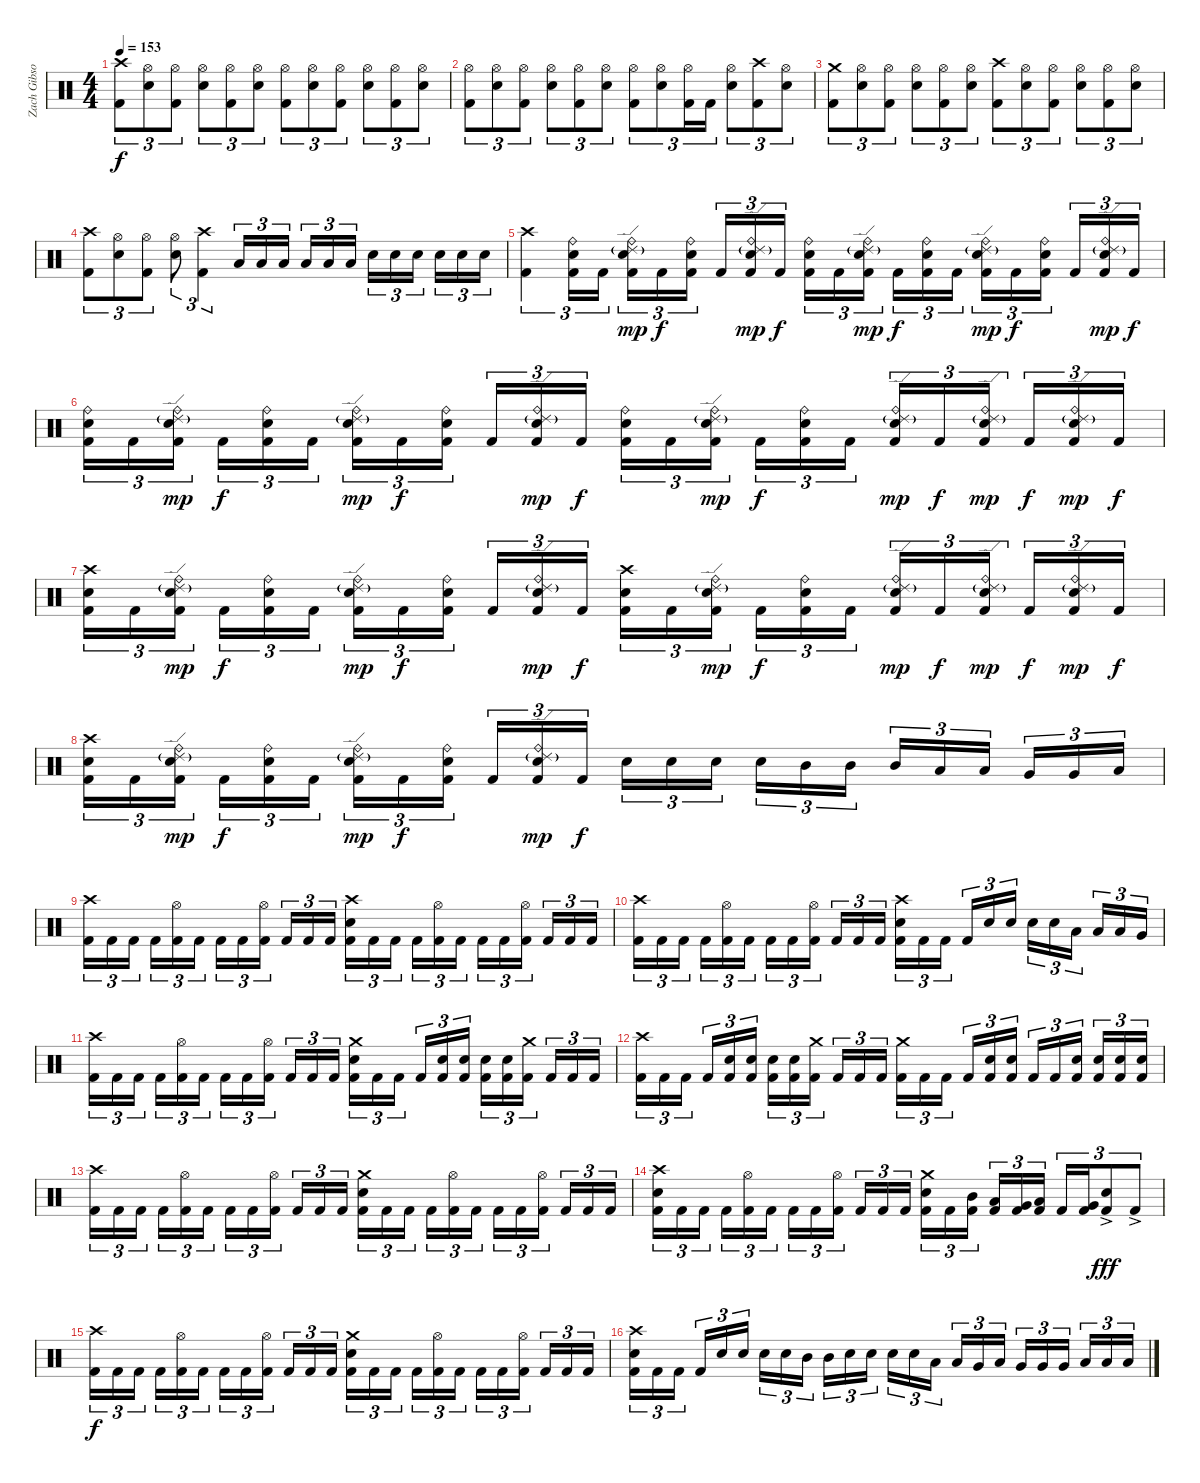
\track ("Zach Gibson (Drums)" "Zach Gibso") {instrument percussion}
\staff {score}
\articulation defaults
\ts (4 4)
\tempo 153
\clef neutral
\ks c
("Crash high (hit)" "Kick (hit) 2").8{tu (3 2) dy f} ("Hi-Hat (open)" "Snare (hit) 2").8{tu (3 2)} ("Hi-Hat (open)" "Kick (hit) 2").8{tu (3 2)} ("Hi-Hat (open)" "Snare (hit) 2").8{tu (3 2)} ("Hi-Hat (open)" "Kick (hit) 2").8{tu (3 2)} ("Hi-Hat (open)" "Snare (hit) 2").8{tu (3 2)} ("Hi-Hat (open)" "Kick (hit) 2").8{tu (3 2)} ("Hi-Hat (open)" "Snare (hit) 2").8{tu (3 2)} ("Hi-Hat (open)" "Kick (hit) 2").8{tu (3 2)} ("Hi-Hat (open)" "Snare (hit) 2").8{tu (3 2)} ("Hi-Hat (open)" "Kick (hit) 2").8{tu (3 2)} ("Hi-Hat (open)" "Snare (hit) 2").8{tu (3 2)} |
("Hi-Hat (open)" "Kick (hit) 2").8{tu (3 2)} ("Hi-Hat (open)" "Snare (hit) 2").8{tu (3 2)} ("Hi-Hat (open)" "Kick (hit) 2").8{tu (3 2)} ("Hi-Hat (open)" "Snare (hit) 2").8{tu (3 2)} ("Hi-Hat (open)" "Kick (hit) 2").8{tu (3 2)} ("Hi-Hat (open)" "Snare (hit) 2").8{tu (3 2)} ("Hi-Hat (open)" "Kick (hit) 2").8{tu (3 2)} ("Hi-Hat (open)" "Snare (hit) 2").8{tu (3 2)} ("Hi-Hat (open)" "Kick (hit) 2").16{tu (3 2)} "Kick (hit) 2".16{tu (3 2)} ("Hi-Hat (open)" "Snare (hit) 2").8{tu (3 2)} ("Crash high (hit)" "Kick (hit) 2").8{tu (3 2)} ("Hi-Hat (open)" "Snare (hit) 2").8{tu (3 2)} |
("Crash medium (hit)" "Kick (hit) 2").8{tu (3 2)} ("Hi-Hat (open)" "Snare (hit) 2").8{tu (3 2)} ("Hi-Hat (open)" "Kick (hit) 2").8{tu (3 2)} ("Hi-Hat (open)" "Snare (hit) 2").8{tu (3 2)} ("Hi-Hat (open)" "Kick (hit) 2").8{tu (3 2)} ("Hi-Hat (open)" "Snare (hit) 2").8{tu (3 2)} ("Crash high (hit)" "Kick (hit) 2").8{tu (3 2)} ("Hi-Hat (open)" "Snare (hit) 2").8{tu (3 2)} ("Hi-Hat (open)" "Kick (hit) 2").8{tu (3 2)} ("Hi-Hat (open)" "Snare (hit) 2").8{tu (3 2)} ("Hi-Hat (open)" "Kick (hit) 2").8{tu (3 2)} ("Hi-Hat (open)" "Snare (hit) 2").8{tu (3 2)} |
("Crash high (hit)" "Kick (hit) 2").8{tu (3 2)} ("Hi-Hat (open)" "Snare (hit) 2").8{tu (3 2)} ("Hi-Hat (open)" "Kick (hit) 2").8{tu (3 2)} ("Hi-Hat (open)" "Snare (hit) 2").8{tu (3 2)} ("Crash high (hit)" "Kick (hit) 2").4{tu (3 2)} "Low Tom (hit)".16{tu (3 2)} "Low Tom (hit)".16{tu (3 2)} "Low Tom (hit)".16{tu (3 2)} "Low Tom (hit)".16{tu (3 2)} "Low Tom (hit)".16{tu (3 2)} "Low Tom (hit)".16{tu (3 2)} "Snare (hit) 2".16{tu (3 2)} "Snare (hit) 2".16{tu (3 2)} "Snare (hit) 2".16{tu (3 2)} "Snare (hit) 2".16{tu (3 2)} "Snare (hit) 2".16{tu (3 2)} "Snare (hit) 2".16{tu (3 2)} |
("Crash high (hit)" "Kick (hit) 2").4{tu (3 2)} ("Ride (bell)" "Snare (hit) 2" "Kick (hit) 2").16{tu (3 2)} "Kick (hit) 2".16{tu (3 2)} ("Ride (bell)" "Ride (edge) 2"{g} "Snare (hit) 2" "Kick (hit) 2").16{tu (3 2) dy mp} "Kick (hit) 2".16{tu (3 2) dy f} ("Ride (bell)" "Snare (hit) 2" "Kick (hit) 2").16{tu (3 2)} "Kick (hit) 2".16{tu (3 2)} ("Ride (bell)" "Ride (edge) 2"{g} "Snare (hit) 2" "Kick (hit) 2").16{tu (3 2) dy mp} "Kick (hit) 2".16{tu (3 2) dy f} ("Ride (bell)" "Snare (hit) 2" "Kick (hit) 2").16{tu (3 2)} "Kick (hit) 2".16{tu (3 2)} ("Ride (bell)" "Ride (edge) 2"{g} "Snare (hit) 2" "Kick (hit) 2").16{tu (3 2) dy mp} "Kick (hit) 2".16{tu (3 2) dy f} ("Ride (bell)" "Snare (hit) 2" "Kick (hit) 2").16{tu (3 2)} "Kick (hit) 2".16{tu (3 2)} ("Ride (bell)" "Ride (edge) 2"{g} "Snare (hit) 2" "Kick (hit) 2").16{tu (3 2) dy mp} "Kick (hit) 2".16{tu (3 2) dy f} ("Ride (bell)" "Snare (hit) 2" "Kick (hit) 2").16{tu (3 2)} "Kick (hit) 2".16{tu (3 2)} ("Ride (bell)" "Ride (edge) 2"{g} "Snare (hit) 2" "Kick (hit) 2").16{tu (3 2) dy mp} "Kick (hit) 2".16{tu (3 2) dy f} |
("Ride (bell)" "Snare (hit) 2" "Kick (hit) 2").16{tu (3 2)} "Kick (hit) 2".16{tu (3 2)} ("Ride (bell)" "Ride (edge) 2"{g} "Snare (hit) 2" "Kick (hit) 2").16{tu (3 2) dy mp} "Kick (hit) 2".16{tu (3 2) dy f} ("Ride (bell)" "Snare (hit) 2" "Kick (hit) 2").16{tu (3 2)} "Kick (hit) 2".16{tu (3 2)} ("Ride (bell)" "Ride (edge) 2"{g} "Snare (hit) 2" "Kick (hit) 2").16{tu (3 2) dy mp} "Kick (hit) 2".16{tu (3 2) dy f} ("Ride (bell)" "Snare (hit) 2" "Kick (hit) 2").16{tu (3 2)} "Kick (hit) 2".16{tu (3 2)} ("Ride (bell)" "Ride (edge) 2"{g} "Snare (hit) 2" "Kick (hit) 2").16{tu (3 2) dy mp} "Kick (hit) 2".16{tu (3 2) dy f} ("Ride (bell)" "Snare (hit) 2" "Kick (hit) 2").16{tu (3 2)} "Kick (hit) 2".16{tu (3 2)} ("Ride (bell)" "Ride (edge) 2"{g} "Snare (hit) 2" "Kick (hit) 2").16{tu (3 2) dy mp} "Kick (hit) 2".16{tu (3 2) dy f} ("Ride (bell)" "Snare (hit) 2" "Kick (hit) 2").16{tu (3 2)} "Kick (hit) 2".16{tu (3 2)} ("Ride (bell)" "Ride (edge) 2"{g} "Snare (hit) 2" "Kick (hit) 2").16{tu (3 2) dy mp} "Kick (hit) 2".16{tu (3 2) dy f} ("Ride (bell)" "Ride (edge) 2"{g} "Snare (hit) 2" "Kick (hit) 2").16{tu (3 2) dy mp} "Kick (hit) 2".16{tu (3 2) dy f} ("Ride (bell)" "Ride (edge) 2"{g} "Snare (hit) 2" "Kick (hit) 2").16{tu (3 2) dy mp} "Kick (hit) 2".16{tu (3 2) dy f} |
("Crash high (hit)" "Snare (hit) 2" "Kick (hit) 2").16{tu (3 2)} "Kick (hit) 2".16{tu (3 2)} ("Ride (bell)" "Ride (edge) 2"{g} "Snare (hit) 2" "Kick (hit) 2").16{tu (3 2) dy mp} "Kick (hit) 2".16{tu (3 2) dy f} ("Ride (bell)" "Snare (hit) 2" "Kick (hit) 2").16{tu (3 2)} "Kick (hit) 2".16{tu (3 2)} ("Ride (bell)" "Ride (edge) 2"{g} "Snare (hit) 2" "Kick (hit) 2").16{tu (3 2) dy mp} "Kick (hit) 2".16{tu (3 2) dy f} ("Ride (bell)" "Snare (hit) 2" "Kick (hit) 2").16{tu (3 2)} "Kick (hit) 2".16{tu (3 2)} ("Ride (bell)" "Ride (edge) 2"{g} "Snare (hit) 2" "Kick (hit) 2").16{tu (3 2) dy mp} "Kick (hit) 2".16{tu (3 2) dy f} ("Crash high (hit)" "Snare (hit) 2" "Kick (hit) 2").16{tu (3 2)} "Kick (hit) 2".16{tu (3 2)} ("Ride (bell)" "Ride (edge) 2"{g} "Snare (hit) 2" "Kick (hit) 2").16{tu (3 2) dy mp} "Kick (hit) 2".16{tu (3 2) dy f} ("Ride (bell)" "Snare (hit) 2" "Kick (hit) 2").16{tu (3 2)} "Kick (hit) 2".16{tu (3 2)} ("Ride (bell)" "Ride (edge) 2"{g} "Snare (hit) 2" "Kick (hit) 2").16{tu (3 2) dy mp} "Kick (hit) 2".16{tu (3 2) dy f} ("Ride (bell)" "Ride (edge) 2"{g} "Snare (hit) 2" "Kick (hit) 2").16{tu (3 2) dy mp} "Kick (hit) 2".16{tu (3 2) dy f} ("Ride (bell)" "Ride (edge) 2"{g} "Snare (hit) 2" "Kick (hit) 2").16{tu (3 2) dy mp} "Kick (hit) 2".16{tu (3 2) dy f} |
("Crash high (hit)" "Snare (hit) 2" "Kick (hit) 2").16{tu (3 2)} "Kick (hit) 2".16{tu (3 2)} ("Ride (bell)" "Ride (edge) 2"{g} "Snare (hit) 2" "Kick (hit) 2").16{tu (3 2) dy mp} "Kick (hit) 2".16{tu (3 2) dy f} ("Ride (bell)" "Snare (hit) 2" "Kick (hit) 2").16{tu (3 2)} "Kick (hit) 2".16{tu (3 2)} ("Ride (bell)" "Ride (edge) 2"{g} "Snare (hit) 2" "Kick (hit) 2").16{tu (3 2) dy mp} "Kick (hit) 2".16{tu (3 2) dy f} ("Ride (bell)" "Snare (hit) 2" "Kick (hit) 2").16{tu (3 2)} "Kick (hit) 2".16{tu (3 2)} ("Ride (bell)" "Ride (edge) 2"{g} "Snare (hit) 2" "Kick (hit) 2").16{tu (3 2) dy mp} "Kick (hit) 2".16{tu (3 2) dy f} "Snare (hit) 2".16{tu (3 2)} "Snare (hit) 2".16{tu (3 2)} "Snare (hit) 2".16{tu (3 2)} "Snare (hit) 2".16{tu (3 2)} "Mid Tom (hit)".16{tu (3 2)} "Mid Tom (hit)".16{tu (3 2)} "Mid Tom (hit)".16{tu (3 2)} "Low Tom (hit)".16{tu (3 2)} "Low Tom (hit)".16{tu (3 2)} "Very Low Tom (hit)".16{tu (3 2)} "Very Low Tom (hit)".16{tu (3 2)} "Low Floor Tom (hit)".16{tu (3 2)} |
("Crash high (hit)" "Kick (hit) 2").16{tu (3 2)} "Kick (hit) 2".16{tu (3 2)} "Kick (hit) 2".16{tu (3 2)} "Kick (hit) 2".16{tu (3 2)} ("Hi-Hat (open)" "Kick (hit) 2").16{tu (3 2)} "Kick (hit) 2".16{tu (3 2)} "Kick (hit) 2".16{tu (3 2)} "Kick (hit) 2".16{tu (3 2)} ("Hi-Hat (open)" "Kick (hit) 2").16{tu (3 2)} "Kick (hit) 2".16{tu (3 2)} "Kick (hit) 2".16{tu (3 2)} "Kick (hit) 2".16{tu (3 2)} ("Snare (hit) 2" "Crash high (hit)" "Kick (hit) 2").16{tu (3 2)} "Kick (hit) 2".16{tu (3 2)} "Kick (hit) 2".16{tu (3 2)} "Kick (hit) 2".16{tu (3 2)} ("Hi-Hat (open)" "Kick (hit) 2").16{tu (3 2)} "Kick (hit) 2".16{tu (3 2)} "Kick (hit) 2".16{tu (3 2)} "Kick (hit) 2".16{tu (3 2)} ("Hi-Hat (open)" "Kick (hit) 2").16{tu (3 2)} "Kick (hit) 2".16{tu (3 2)} "Kick (hit) 2".16{tu (3 2)} "Kick (hit) 2".16{tu (3 2)} |
("Crash high (hit)" "Kick (hit) 2").16{tu (3 2)} "Kick (hit) 2".16{tu (3 2)} "Kick (hit) 2".16{tu (3 2)} "Kick (hit) 2".16{tu (3 2)} ("Hi-Hat (open)" "Kick (hit) 2").16{tu (3 2)} "Kick (hit) 2".16{tu (3 2)} "Kick (hit) 2".16{tu (3 2)} "Kick (hit) 2".16{tu (3 2)} ("Hi-Hat (open)" "Kick (hit) 2").16{tu (3 2)} "Kick (hit) 2".16{tu (3 2)} "Kick (hit) 2".16{tu (3 2)} "Kick (hit) 2".16{tu (3 2)} ("Snare (hit) 2" "Crash high (hit)" "Kick (hit) 2").16{tu (3 2)} "Kick (hit) 2".16{tu (3 2)} "Kick (hit) 2".16{tu (3 2)} "Kick (hit) 2".16{tu (3 2)} "Snare (hit) 2".16{tu (3 2)} "Snare (hit) 2".16{tu (3 2)} "Snare (hit) 2".16{tu (3 2)} "Snare (hit) 2".16{tu (3 2)} "Low Tom (hit)".16{tu (3 2)} "Low Tom (hit)".16{tu (3 2)} "Low Tom (hit)".16{tu (3 2)} "Very Low Tom (hit)".16{tu (3 2)} |
("Crash high (hit)" "Kick (hit) 2").16{tu (3 2)} "Kick (hit) 2".16{tu (3 2)} "Kick (hit) 2".16{tu (3 2)} "Kick (hit) 2".16{tu (3 2)} ("Hi-Hat (open)" "Kick (hit) 2").16{tu (3 2)} "Kick (hit) 2".16{tu (3 2)} "Kick (hit) 2".16{tu (3 2)} "Kick (hit) 2".16{tu (3 2)} ("Hi-Hat (open)" "Kick (hit) 2").16{tu (3 2)} "Kick (hit) 2".16{tu (3 2)} "Kick (hit) 2".16{tu (3 2)} "Kick (hit) 2".16{tu (3 2)} ("Crash medium (hit)" "Snare (hit) 2" "Kick (hit) 2").16{tu (3 2)} "Kick (hit) 2".16{tu (3 2)} "Kick (hit) 2".16{tu (3 2)} "Kick (hit) 2".16{tu (3 2)} ("Snare (hit) 2" "Kick (hit) 2").16{tu (3 2)} ("Snare (hit) 2" "Kick (hit) 2").16{tu (3 2)} ("Snare (hit) 2" "Kick (hit) 2").16{tu (3 2)} ("Snare (hit) 2" "Kick (hit) 2").16{tu (3 2)} ("Crash medium (hit)" "Kick (hit) 2").16{tu (3 2)} "Kick (hit) 2".16{tu (3 2)} "Kick (hit) 2".16{tu (3 2)} "Kick (hit) 2".16{tu (3 2)} |
("Crash high (hit)" "Kick (hit) 2").16{tu (3 2)} "Kick (hit) 2".16{tu (3 2)} "Kick (hit) 2".16{tu (3 2)} "Kick (hit) 2".16{tu (3 2)} ("Snare (hit) 2" "Kick (hit) 2").16{tu (3 2)} ("Snare (hit) 2" "Kick (hit) 2").16{tu (3 2)} ("Snare (hit) 2" "Kick (hit) 2").16{tu (3 2)} ("Snare (hit) 2" "Kick (hit) 2").16{tu (3 2)} ("Crash medium (hit)" "Kick (hit) 2").16{tu (3 2)} "Kick (hit) 2".16{tu (3 2)} "Kick (hit) 2".16{tu (3 2)} "Kick (hit) 2".16{tu (3 2)} ("Crash medium (hit)" "Kick (hit) 2").16{tu (3 2)} "Kick (hit) 2".16{tu (3 2)} "Kick (hit) 2".16{tu (3 2)} "Kick (hit) 2".16{tu (3 2)} ("Snare (hit) 2" "Kick (hit) 2").16{tu (3 2)} ("Snare (hit) 2" "Kick (hit) 2").16{tu (3 2)} "Kick (hit) 2".16{tu (3 2)} "Kick (hit) 2".16{tu (3 2)} ("Snare (hit) 2" "Kick (hit) 2").16{tu (3 2)} ("Snare (hit) 2" "Kick (hit) 2").16{tu (3 2)} ("Snare (hit) 2" "Kick (hit) 2").16{tu (3 2)} ("Snare (hit) 2" "Kick (hit) 2").16{tu (3 2)} |
("Crash high (hit)" "Kick (hit) 2").16{tu (3 2)} "Kick (hit) 2".16{tu (3 2)} "Kick (hit) 2".16{tu (3 2)} "Kick (hit) 2".16{tu (3 2)} ("Hi-Hat (open)" "Kick (hit) 2").16{tu (3 2)} "Kick (hit) 2".16{tu (3 2)} "Kick (hit) 2".16{tu (3 2)} "Kick (hit) 2".16{tu (3 2)} ("Hi-Hat (open)" "Kick (hit) 2").16{tu (3 2)} "Kick (hit) 2".16{tu (3 2)} "Kick (hit) 2".16{tu (3 2)} "Kick (hit) 2".16{tu (3 2)} ("Crash medium (hit)" "Snare (hit) 2" "Kick (hit) 2").16{tu (3 2)} "Kick (hit) 2".16{tu (3 2)} "Kick (hit) 2".16{tu (3 2)} "Kick (hit) 2".16{tu (3 2)} ("Hi-Hat (open)" "Kick (hit) 2").16{tu (3 2)} "Kick (hit) 2".16{tu (3 2)} "Kick (hit) 2".16{tu (3 2)} "Kick (hit) 2".16{tu (3 2)} ("Hi-Hat (open)" "Kick (hit) 2").16{tu (3 2)} "Kick (hit) 2".16{tu (3 2)} "Kick (hit) 2".16{tu (3 2)} "Kick (hit) 2".16{tu (3 2)} |
("Snare (hit) 2" "Crash high (hit)" "Kick (hit) 2").16{tu (3 2)} "Kick (hit) 2".16{tu (3 2)} "Kick (hit) 2".16{tu (3 2)} "Kick (hit) 2".16{tu (3 2)} ("Hi-Hat (open)" "Kick (hit) 2").16{tu (3 2)} "Kick (hit) 2".16{tu (3 2)} "Kick (hit) 2".16{tu (3 2)} "Kick (hit) 2".16{tu (3 2)} ("Hi-Hat (open)" "Kick (hit) 2").16{tu (3 2)} "Kick (hit) 2".16{tu (3 2)} "Kick (hit) 2".16{tu (3 2)} "Kick (hit) 2".16{tu (3 2)} ("Crash medium (hit)" "Snare (hit) 2" "Kick (hit) 2").16{tu (3 2)} "Kick (hit) 2".16{tu (3 2)} ("Mid Tom (hit)" "Kick (hit) 2").16{tu (3 2)} ("Low Tom (hit)" "Kick (hit) 2").16{tu (3 2)} ("Very Low Tom (hit)" "Kick (hit) 2").16{tu (3 2)} ("Low Floor Tom (hit)" "Kick (hit) 2").16{tu (3 2)} "Kick (hit) 2".16{tu (3 2)} ("Very Low Tom (hit)" "Kick (hit) 2").16{tu (3 2)} ("Snare (hit) 2" "Kick (hit) 2"{ac}).8{tu (3 2) dy fff} "Kick (hit) 2"{ac}.8{tu (3 2)} |
("Crash high (hit)" "Kick (hit) 2").16{tu (3 2) dy f} "Kick (hit) 2".16{tu (3 2)} "Kick (hit) 2".16{tu (3 2)} "Kick (hit) 2".16{tu (3 2)} ("Hi-Hat (open)" "Kick (hit) 2").16{tu (3 2)} "Kick (hit) 2".16{tu (3 2)} "Kick (hit) 2".16{tu (3 2)} "Kick (hit) 2".16{tu (3 2)} ("Hi-Hat (open)" "Kick (hit) 2").16{tu (3 2)} "Kick (hit) 2".16{tu (3 2)} "Kick (hit) 2".16{tu (3 2)} "Kick (hit) 2".16{tu (3 2)} ("Crash medium (hit)" "Snare (hit) 2" "Kick (hit) 2").16{tu (3 2)} "Kick (hit) 2".16{tu (3 2)} "Kick (hit) 2".16{tu (3 2)} "Kick (hit) 2".16{tu (3 2)} ("Hi-Hat (open)" "Kick (hit) 2").16{tu (3 2)} "Kick (hit) 2".16{tu (3 2)} "Kick (hit) 2".16{tu (3 2)} "Kick (hit) 2".16{tu (3 2)} ("Hi-Hat (open)" "Kick (hit) 2").16{tu (3 2)} "Kick (hit) 2".16{tu (3 2)} "Kick (hit) 2".16{tu (3 2)} "Kick (hit) 2".16{tu (3 2)} |
("Snare (hit) 2" "Crash high (hit)" "Kick (hit) 2").16{tu (3 2)} "Kick (hit) 2".16{tu (3 2)} "Kick (hit) 2".16{tu (3 2)} "Kick (hit) 2".16{tu (3 2)} "Snare (hit) 2".16{tu (3 2)} "Snare (hit) 2".16{tu (3 2)} "Snare (hit) 2".16{tu (3 2)} "Snare (hit) 2".16{tu (3 2)} "Mid Tom (hit)".16{tu (3 2)} "Mid Tom (hit)".16{tu (3 2)} "Snare (hit) 2".16{tu (3 2)} "Snare (hit) 2".16{tu (3 2)} "Snare (hit) 2".16{tu (3 2)} "Snare (hit) 2".16{tu (3 2)} "Low Tom (hit)".16{tu (3 2)} "Low Tom (hit)".16{tu (3 2)} "Very Low Tom (hit)".16{tu (3 2)} "Low Floor Tom (hit)".16{tu (3 2)} "Very Low Tom (hit)".16{tu (3 2)} "Very Low Tom (hit)".16{tu (3 2)} "Very Low Tom (hit)".16{tu (3 2)} "Low Floor Tom (hit)".16{tu (3 2)} "Low Floor Tom (hit)".16{tu (3 2)} "Low Floor Tom (hit)".16{tu (3 2)}
